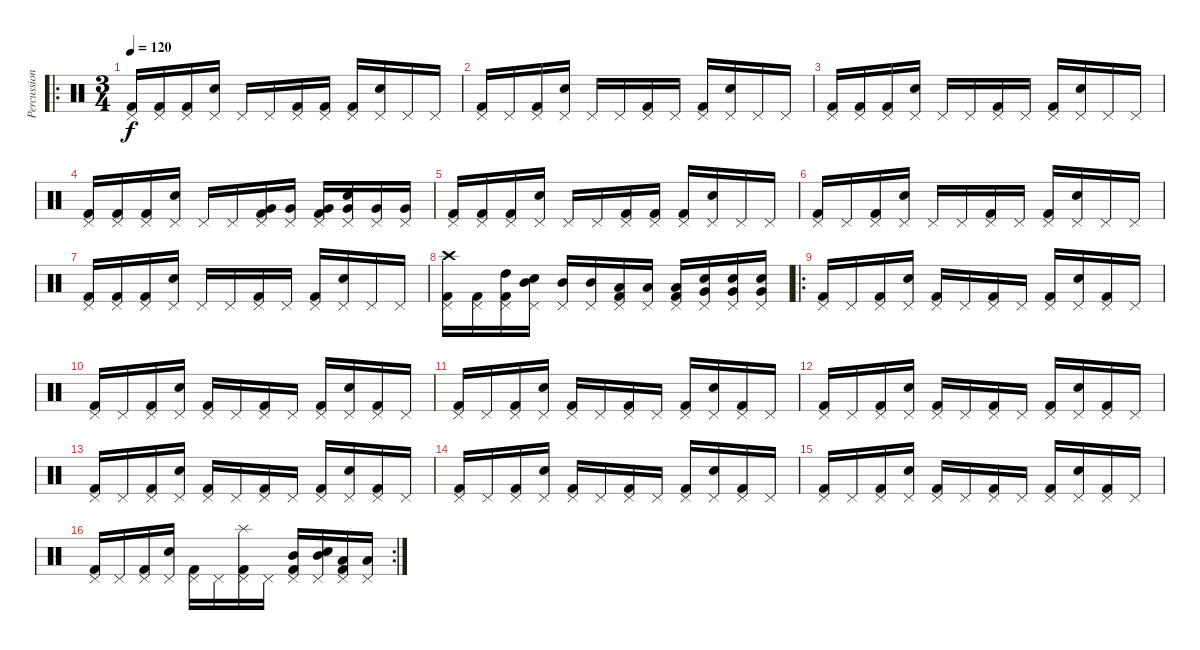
\track ("Percussion" "Percussion") {instrument percussion}
\staff {score}
\articulation defaults
\ro
\ts (3 4)
\tempo 120
\clef neutral
\ks c
("Kick (hit) 2" "Pedal Hi-Hat (hit)").16{dy f} ("Kick (hit) 2" "Pedal Hi-Hat (hit)").16 ("Kick (hit) 2" "Pedal Hi-Hat (hit)").16 ("Pedal Hi-Hat (hit)" "Electric Snare (hit)").16 "Pedal Hi-Hat (hit)".16 "Pedal Hi-Hat (hit)".16 ("Kick (hit) 2" "Pedal Hi-Hat (hit)").16 ("Kick (hit) 2" "Pedal Hi-Hat (hit)").16 ("Kick (hit) 2" "Pedal Hi-Hat (hit)").16 ("Pedal Hi-Hat (hit)" "Electric Snare (hit)").16 "Pedal Hi-Hat (hit)".16 "Pedal Hi-Hat (hit)".16 |
("Kick (hit) 2" "Pedal Hi-Hat (hit)").16 "Pedal Hi-Hat (hit)".16 ("Kick (hit) 2" "Pedal Hi-Hat (hit)").16 ("Pedal Hi-Hat (hit)" "Electric Snare (hit)").16 "Pedal Hi-Hat (hit)".16 "Pedal Hi-Hat (hit)".16 ("Kick (hit) 2" "Pedal Hi-Hat (hit)").16 "Pedal Hi-Hat (hit)".16 ("Kick (hit) 2" "Pedal Hi-Hat (hit)").16 ("Pedal Hi-Hat (hit)" "Electric Snare (hit)").16 "Pedal Hi-Hat (hit)".16 "Pedal Hi-Hat (hit)".16 |
("Kick (hit) 2" "Pedal Hi-Hat (hit)").16 ("Kick (hit) 2" "Pedal Hi-Hat (hit)").16 ("Kick (hit) 2" "Pedal Hi-Hat (hit)").16 ("Pedal Hi-Hat (hit)" "Electric Snare (hit)").16 "Pedal Hi-Hat (hit)".16 "Pedal Hi-Hat (hit)".16 ("Kick (hit) 2" "Pedal Hi-Hat (hit)").16 "Pedal Hi-Hat (hit)".16 ("Kick (hit) 2" "Pedal Hi-Hat (hit)").16 ("Pedal Hi-Hat (hit)" "Electric Snare (hit)").16 "Pedal Hi-Hat (hit)".16 "Pedal Hi-Hat (hit)".16 |
("Kick (hit) 2" "Pedal Hi-Hat (hit)").16 ("Kick (hit) 2" "Pedal Hi-Hat (hit)").16 ("Kick (hit) 2" "Pedal Hi-Hat (hit)").16 ("Pedal Hi-Hat (hit)" "Electric Snare (hit)").16 "Pedal Hi-Hat (hit)".16 "Pedal Hi-Hat (hit)".16 ("Kick (hit) 2" "Pedal Hi-Hat (hit)" "Very Low Tom (hit)").16 ("Pedal Hi-Hat (hit)" "Very Low Tom (hit)").16 ("Kick (hit) 2" "Pedal Hi-Hat (hit)" "Very Low Tom (hit)").16 ("Pedal Hi-Hat (hit)" "Electric Snare (hit)" "Very Low Tom (hit)").16 ("Pedal Hi-Hat (hit)" "Very Low Tom (hit)").16 ("Pedal Hi-Hat (hit)" "Very Low Tom (hit)").16 |
("Kick (hit) 2" "Pedal Hi-Hat (hit)").16 ("Kick (hit) 2" "Pedal Hi-Hat (hit)").16 ("Kick (hit) 2" "Pedal Hi-Hat (hit)").16 ("Pedal Hi-Hat (hit)" "Electric Snare (hit)").16 "Pedal Hi-Hat (hit)".16 "Pedal Hi-Hat (hit)".16 ("Kick (hit) 2" "Pedal Hi-Hat (hit)").16 ("Kick (hit) 2" "Pedal Hi-Hat (hit)").16 ("Kick (hit) 2" "Pedal Hi-Hat (hit)").16 ("Pedal Hi-Hat (hit)" "Electric Snare (hit)").16 "Pedal Hi-Hat (hit)".16 "Pedal Hi-Hat (hit)".16 |
("Kick (hit) 2" "Pedal Hi-Hat (hit)").16 "Pedal Hi-Hat (hit)".16 ("Kick (hit) 2" "Pedal Hi-Hat (hit)").16 ("Pedal Hi-Hat (hit)" "Electric Snare (hit)").16 "Pedal Hi-Hat (hit)".16 "Pedal Hi-Hat (hit)".16 ("Kick (hit) 2" "Pedal Hi-Hat (hit)").16 "Pedal Hi-Hat (hit)".16 ("Kick (hit) 2" "Pedal Hi-Hat (hit)").16 ("Pedal Hi-Hat (hit)" "Electric Snare (hit)").16 "Pedal Hi-Hat (hit)".16 "Pedal Hi-Hat (hit)".16 |
("Kick (hit) 2" "Pedal Hi-Hat (hit)").16 ("Kick (hit) 2" "Pedal Hi-Hat (hit)").16 ("Kick (hit) 2" "Pedal Hi-Hat (hit)").16 ("Pedal Hi-Hat (hit)" "Electric Snare (hit)").16 "Pedal Hi-Hat (hit)".16 "Pedal Hi-Hat (hit)".16 ("Kick (hit) 2" "Pedal Hi-Hat (hit)").16 "Pedal Hi-Hat (hit)".16 ("Kick (hit) 2" "Pedal Hi-Hat (hit)").16 ("Pedal Hi-Hat (hit)" "Electric Snare (hit)").16 "Pedal Hi-Hat (hit)".16 "Pedal Hi-Hat (hit)".16 |
("Kick (hit) 2" "Pedal Hi-Hat (hit)" "Crash high (hit)").16 ("Kick (hit) 2" "Pedal Hi-Hat (hit)").16 ("Kick (hit) 2" "Pedal Hi-Hat (hit)" "High Tom (hit)").16 ("Pedal Hi-Hat (hit)" "Electric Snare (hit)" "Mid Tom (hit)").16 ("Pedal Hi-Hat (hit)" "Mid Tom (hit)").16 ("Pedal Hi-Hat (hit)" "Mid Tom (hit)").16 ("Kick (hit) 2" "Pedal Hi-Hat (hit)" "Low Tom (hit)").16 ("Pedal Hi-Hat (hit)" "Low Tom (hit)").16 ("Kick (hit) 2" "Pedal Hi-Hat (hit)" "Low Tom (hit)").16 ("Pedal Hi-Hat (hit)" "Electric Snare (hit)" "Very Low Tom (hit)").16 ("Pedal Hi-Hat (hit)" "Electric Snare (hit)" "Very Low Tom (hit)").16 ("Pedal Hi-Hat (hit)" "Electric Snare (hit)" "Very Low Tom (hit)").16 |
\ro
("Kick (hit) 2" "Pedal Hi-Hat (hit)").16 "Pedal Hi-Hat (hit)".16 ("Kick (hit) 2" "Pedal Hi-Hat (hit)").16 ("Pedal Hi-Hat (hit)" "Electric Snare (hit)").16 ("Kick (hit) 2" "Pedal Hi-Hat (hit)").16 "Pedal Hi-Hat (hit)".16 ("Kick (hit) 2" "Pedal Hi-Hat (hit)").16 "Pedal Hi-Hat (hit)".16 ("Kick (hit) 2" "Pedal Hi-Hat (hit)").16 ("Pedal Hi-Hat (hit)" "Electric Snare (hit)").16 ("Kick (hit) 2" "Pedal Hi-Hat (hit)").16 "Pedal Hi-Hat (hit)".16 |
("Kick (hit) 2" "Pedal Hi-Hat (hit)").16 "Pedal Hi-Hat (hit)".16 ("Kick (hit) 2" "Pedal Hi-Hat (hit)").16 ("Pedal Hi-Hat (hit)" "Electric Snare (hit)").16 ("Kick (hit) 2" "Pedal Hi-Hat (hit)").16 "Pedal Hi-Hat (hit)".16 ("Kick (hit) 2" "Pedal Hi-Hat (hit)").16 "Pedal Hi-Hat (hit)".16 ("Kick (hit) 2" "Pedal Hi-Hat (hit)").16 ("Pedal Hi-Hat (hit)" "Electric Snare (hit)").16 ("Kick (hit) 2" "Pedal Hi-Hat (hit)").16 "Pedal Hi-Hat (hit)".16 |
("Kick (hit) 2" "Pedal Hi-Hat (hit)").16 "Pedal Hi-Hat (hit)".16 ("Kick (hit) 2" "Pedal Hi-Hat (hit)").16 ("Pedal Hi-Hat (hit)" "Electric Snare (hit)").16 ("Kick (hit) 2" "Pedal Hi-Hat (hit)").16 "Pedal Hi-Hat (hit)".16 ("Kick (hit) 2" "Pedal Hi-Hat (hit)").16 "Pedal Hi-Hat (hit)".16 ("Kick (hit) 2" "Pedal Hi-Hat (hit)").16 ("Pedal Hi-Hat (hit)" "Electric Snare (hit)").16 ("Kick (hit) 2" "Pedal Hi-Hat (hit)").16 "Pedal Hi-Hat (hit)".16 |
("Kick (hit) 2" "Pedal Hi-Hat (hit)").16 "Pedal Hi-Hat (hit)".16 ("Kick (hit) 2" "Pedal Hi-Hat (hit)").16 ("Pedal Hi-Hat (hit)" "Electric Snare (hit)").16 ("Kick (hit) 2" "Pedal Hi-Hat (hit)").16 "Pedal Hi-Hat (hit)".16 ("Kick (hit) 2" "Pedal Hi-Hat (hit)").16 "Pedal Hi-Hat (hit)".16 ("Kick (hit) 2" "Pedal Hi-Hat (hit)").16 ("Pedal Hi-Hat (hit)" "Electric Snare (hit)").16 ("Kick (hit) 2" "Pedal Hi-Hat (hit)").16 "Pedal Hi-Hat (hit)".16 |
("Kick (hit) 2" "Pedal Hi-Hat (hit)").16 "Pedal Hi-Hat (hit)".16 ("Kick (hit) 2" "Pedal Hi-Hat (hit)").16 ("Pedal Hi-Hat (hit)" "Electric Snare (hit)").16 ("Kick (hit) 2" "Pedal Hi-Hat (hit)").16 "Pedal Hi-Hat (hit)".16 ("Kick (hit) 2" "Pedal Hi-Hat (hit)").16 "Pedal Hi-Hat (hit)".16 ("Kick (hit) 2" "Pedal Hi-Hat (hit)").16 ("Pedal Hi-Hat (hit)" "Electric Snare (hit)").16 ("Kick (hit) 2" "Pedal Hi-Hat (hit)").16 "Pedal Hi-Hat (hit)".16 |
("Kick (hit) 2" "Pedal Hi-Hat (hit)").16 "Pedal Hi-Hat (hit)".16 ("Kick (hit) 2" "Pedal Hi-Hat (hit)").16 ("Pedal Hi-Hat (hit)" "Electric Snare (hit)").16 ("Kick (hit) 2" "Pedal Hi-Hat (hit)").16 "Pedal Hi-Hat (hit)".16 ("Kick (hit) 2" "Pedal Hi-Hat (hit)").16 "Pedal Hi-Hat (hit)".16 ("Kick (hit) 2" "Pedal Hi-Hat (hit)").16 ("Pedal Hi-Hat (hit)" "Electric Snare (hit)").16 ("Kick (hit) 2" "Pedal Hi-Hat (hit)").16 "Pedal Hi-Hat (hit)".16 |
("Kick (hit) 2" "Pedal Hi-Hat (hit)").16 "Pedal Hi-Hat (hit)".16 ("Kick (hit) 2" "Pedal Hi-Hat (hit)").16 ("Pedal Hi-Hat (hit)" "Electric Snare (hit)").16 ("Kick (hit) 2" "Pedal Hi-Hat (hit)").16 "Pedal Hi-Hat (hit)".16 ("Kick (hit) 2" "Pedal Hi-Hat (hit)").16 "Pedal Hi-Hat (hit)".16 ("Kick (hit) 2" "Pedal Hi-Hat (hit)").16 ("Pedal Hi-Hat (hit)" "Electric Snare (hit)").16 ("Kick (hit) 2" "Pedal Hi-Hat (hit)").16 "Pedal Hi-Hat (hit)".16 |
\rc 2
("Kick (hit) 2" "Pedal Hi-Hat (hit)").16 "Pedal Hi-Hat (hit)".16 ("Kick (hit) 2" "Pedal Hi-Hat (hit)").16 ("Pedal Hi-Hat (hit)" "Electric Snare (hit)").16 ("Kick (hit) 2" "Pedal Hi-Hat (hit)").16 "Pedal Hi-Hat (hit)".16 ("Kick (hit) 2" "Pedal Hi-Hat (hit)" "Splash (hit)").16 "Pedal Hi-Hat (hit)".16 ("Kick (hit) 2" "Pedal Hi-Hat (hit)" "Mid Tom (hit)").16 ("Pedal Hi-Hat (hit)" "Electric Snare (hit)" "Mid Tom (hit)").16 ("Kick (hit) 2" "Pedal Hi-Hat (hit)" "Low Tom (hit)").16 ("Pedal Hi-Hat (hit)" "Low Tom (hit)").16
